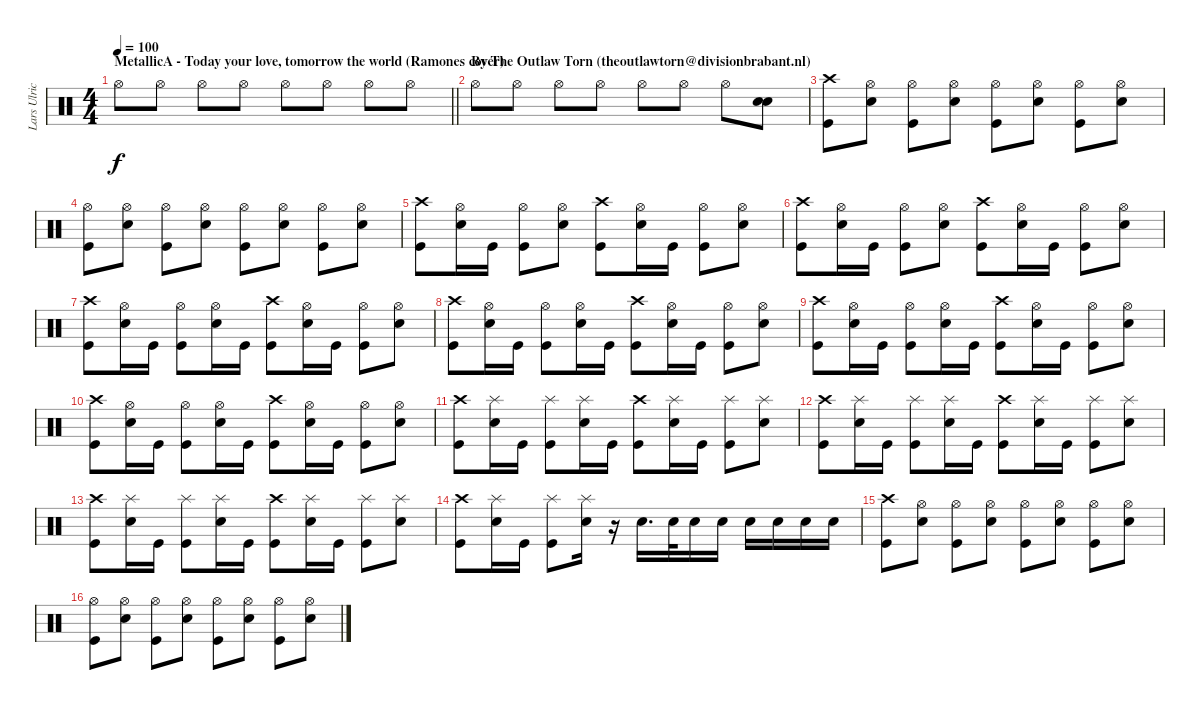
\track ("Lars Ulrich Drums" "Lars Ulric") {instrument percussion}
\staff {score}
\articulation defaults
\ts (4 4)
\section ("" "MetallicA - Today your love, tomorrow the world (Ramones cover)")
\tempo 100
\clef neutral
\barLineRight lightlight
\ks c "Hi-Hat (open)".8{dy f} "Hi-Hat (open)".8 "Hi-Hat (open)".8 "Hi-Hat (open)".8 "Hi-Hat (open)".8 "Hi-Hat (open)".8 "Hi-Hat (open)".8 "Hi-Hat (open)".8
|
\section ("" "By The Outlaw Torn (theoutlawtorn@divisionbrabant.nl)")
"Hi-Hat (open)".8 "Hi-Hat (open)".8 "Hi-Hat (open)".8 "Hi-Hat (open)".8 "Hi-Hat (open)".8 "Hi-Hat (open)".8 "Hi-Hat (open)".8 ("Electric Snare (hit)" "Electric Snare (hit)").8{bd 480} |
("Crash high (hit)" "Kick (hit)").8 ("Hi-Hat (open)" "Electric Snare (hit)").8 ("Hi-Hat (open)" "Kick (hit)").8 ("Hi-Hat (open)" "Electric Snare (hit)").8 ("Hi-Hat (open)" "Kick (hit)").8 ("Hi-Hat (open)" "Electric Snare (hit)").8 ("Hi-Hat (open)" "Kick (hit)").8 ("Hi-Hat (open)" "Electric Snare (hit)").8 |
("Hi-Hat (open)" "Kick (hit)").8 ("Hi-Hat (open)" "Electric Snare (hit)").8 ("Hi-Hat (open)" "Kick (hit)").8 ("Hi-Hat (open)" "Electric Snare (hit)").8 ("Hi-Hat (open)" "Kick (hit)").8 ("Hi-Hat (open)" "Electric Snare (hit)").8 ("Hi-Hat (open)" "Kick (hit)").8 ("Hi-Hat (open)" "Electric Snare (hit)").8 |
("Crash high (hit)" "Kick (hit)").8 ("Hi-Hat (open)" "Electric Snare (hit)").16 "Kick (hit)".16 ("Hi-Hat (open)" "Kick (hit)").8 ("Hi-Hat (open)" "Electric Snare (hit)").8 ("Crash high (hit)" "Kick (hit)").8 ("Hi-Hat (open)" "Electric Snare (hit)").16 "Kick (hit)".16 ("Hi-Hat (open)" "Kick (hit)").8 ("Hi-Hat (open)" "Electric Snare (hit)").8 |
("Crash high (hit)" "Kick (hit)").8 ("Hi-Hat (open)" "Electric Snare (hit)").16 "Kick (hit)".16 ("Hi-Hat (open)" "Kick (hit)").8 ("Hi-Hat (open)" "Electric Snare (hit)").8 ("Crash high (hit)" "Kick (hit)").8 ("Hi-Hat (open)" "Electric Snare (hit)").16 "Kick (hit)".16 ("Hi-Hat (open)" "Kick (hit)").8 ("Hi-Hat (open)" "Electric Snare (hit)").8 |
("Crash high (hit)" "Kick (hit)").8 ("Hi-Hat (open)" "Electric Snare (hit)").16 "Kick (hit)".16 ("Hi-Hat (open)" "Kick (hit)").8 ("Hi-Hat (open)" "Electric Snare (hit)").16 "Kick (hit)".16 ("Crash high (hit)" "Kick (hit)").8 ("Hi-Hat (open)" "Electric Snare (hit)").16 "Kick (hit)".16 ("Hi-Hat (open)" "Kick (hit)").8 ("Hi-Hat (open)" "Electric Snare (hit)").8 |
("Crash high (hit)" "Kick (hit)").8 ("Hi-Hat (open)" "Electric Snare (hit)").16 "Kick (hit)".16 ("Hi-Hat (open)" "Kick (hit)").8 ("Hi-Hat (open)" "Electric Snare (hit)").16 "Kick (hit)".16 ("Crash high (hit)" "Kick (hit)").8 ("Hi-Hat (open)" "Electric Snare (hit)").16 "Kick (hit)".16 ("Hi-Hat (open)" "Kick (hit)").8 ("Hi-Hat (open)" "Electric Snare (hit)").8 |
("Crash high (hit)" "Kick (hit)").8 ("Hi-Hat (open)" "Electric Snare (hit)").16 "Kick (hit)".16 ("Hi-Hat (open)" "Kick (hit)").8 ("Hi-Hat (open)" "Electric Snare (hit)").16 "Kick (hit)".16 ("Crash high (hit)" "Kick (hit)").8 ("Hi-Hat (open)" "Electric Snare (hit)").16 "Kick (hit)".16 ("Hi-Hat (open)" "Kick (hit)").8 ("Hi-Hat (open)" "Electric Snare (hit)").8 |
("Crash high (hit)" "Kick (hit)").8 ("Hi-Hat (open)" "Electric Snare (hit)").16 "Kick (hit)".16 ("Hi-Hat (open)" "Kick (hit)").8 ("Hi-Hat (open)" "Electric Snare (hit)").16 "Kick (hit)".16 ("Crash high (hit)" "Kick (hit)").8 ("Hi-Hat (open)" "Electric Snare (hit)").16 "Kick (hit)".16 ("Hi-Hat (open)" "Kick (hit)").8 ("Hi-Hat (open)" "Electric Snare (hit)").8 |
("Crash high (hit)" "Kick (hit)").8 ("Splash (hit)" "Electric Snare (hit)").16 "Kick (hit)".16 ("Splash (hit)" "Kick (hit)").8 ("Splash (hit)" "Electric Snare (hit)").16 "Kick (hit)".16 ("Crash high (hit)" "Kick (hit)").8 ("Splash (hit)" "Electric Snare (hit)").16 "Kick (hit)".16 ("Splash (hit)" "Kick (hit)").8 ("Splash (hit)" "Electric Snare (hit)").8 |
("Crash high (hit)" "Kick (hit)").8 ("Splash (hit)" "Electric Snare (hit)").16 "Kick (hit)".16 ("Splash (hit)" "Kick (hit)").8 ("Splash (hit)" "Electric Snare (hit)").16 "Kick (hit)".16 ("Crash high (hit)" "Kick (hit)").8 ("Splash (hit)" "Electric Snare (hit)").16 "Kick (hit)".16 ("Splash (hit)" "Kick (hit)").8 ("Splash (hit)" "Electric Snare (hit)").8 |
("Crash high (hit)" "Kick (hit)").8 ("Splash (hit)" "Electric Snare (hit)").16 "Kick (hit)".16 ("Splash (hit)" "Kick (hit)").8 ("Splash (hit)" "Electric Snare (hit)").16 "Kick (hit)".16 ("Crash high (hit)" "Kick (hit)").8 ("Splash (hit)" "Electric Snare (hit)").16 "Kick (hit)".16 ("Splash (hit)" "Kick (hit)").8 ("Splash (hit)" "Electric Snare (hit)").8 |
("Crash high (hit)" "Kick (hit)").8 ("Splash (hit)" "Electric Snare (hit)").16 "Kick (hit)".16 ("Splash (hit)" "Kick (hit)").8 ("Splash (hit)" "Electric Snare (hit)").16 r.16 "Electric Snare (hit)".16{d} "Electric Snare (hit)".32 "Electric Snare (hit)".16 "Electric Snare (hit)".16 "Electric Snare (hit)".16 "Electric Snare (hit)".16 "Electric Snare (hit)".16 "Electric Snare (hit)".16 |
("Crash high (hit)" "Kick (hit)").8 ("Hi-Hat (open)" "Electric Snare (hit)").8 ("Hi-Hat (open)" "Kick (hit)").8 ("Hi-Hat (open)" "Electric Snare (hit)").8 ("Hi-Hat (open)" "Kick (hit)").8 ("Hi-Hat (open)" "Electric Snare (hit)").8 ("Hi-Hat (open)" "Kick (hit)").8 ("Hi-Hat (open)" "Electric Snare (hit)").8 |
("Hi-Hat (open)" "Kick (hit)").8 ("Hi-Hat (open)" "Electric Snare (hit)").8 ("Hi-Hat (open)" "Kick (hit)").8 ("Hi-Hat (open)" "Electric Snare (hit)").8 ("Hi-Hat (open)" "Kick (hit)").8 ("Hi-Hat (open)" "Electric Snare (hit)").8 ("Hi-Hat (open)" "Kick (hit)").8 ("Hi-Hat (open)" "Electric Snare (hit)").8
